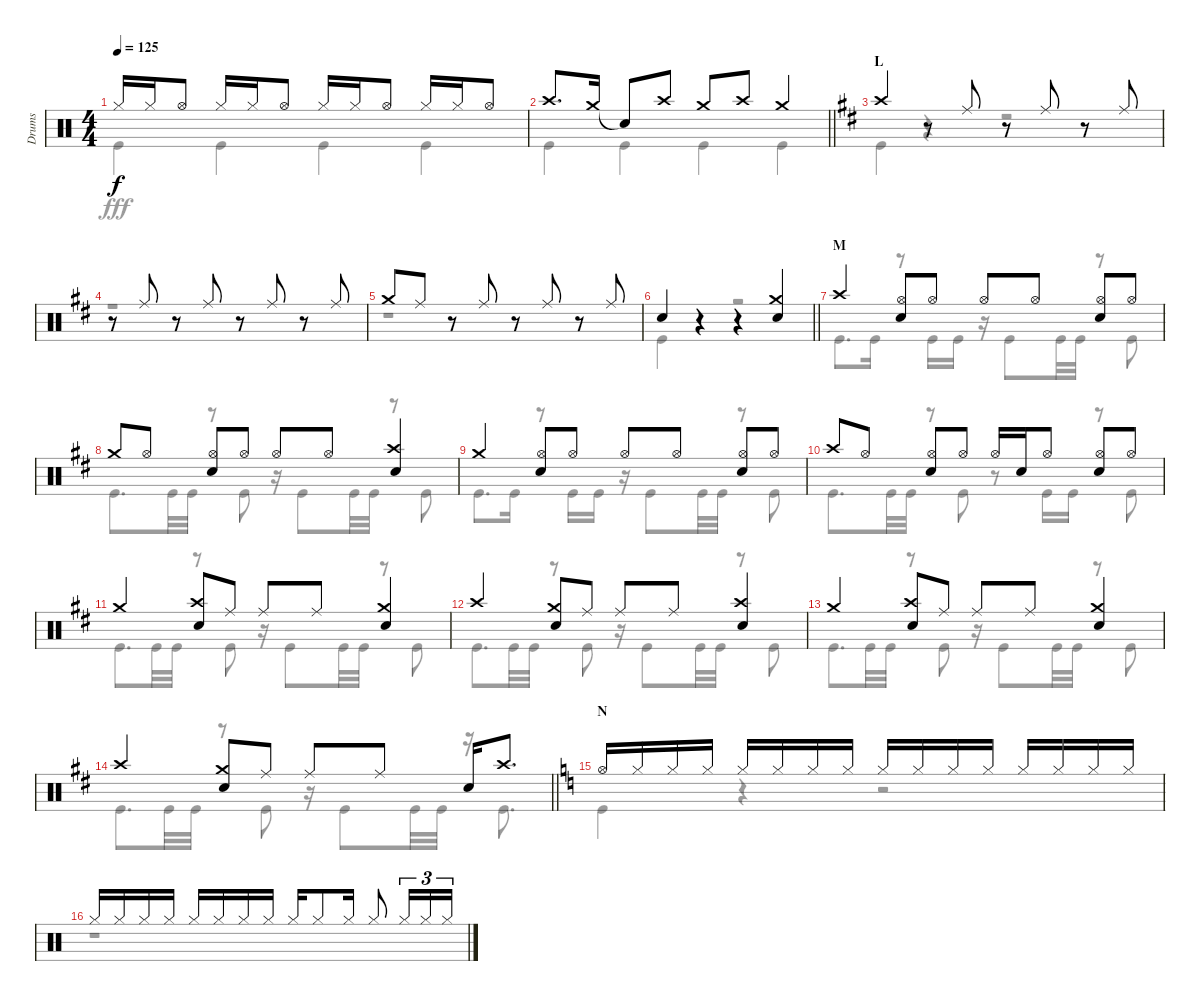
\track ("Drums" "Drums") {instrument percussion}
\staff {score}
\articulation defaults
\voice
\ts (4 4)
\tempo 125
\clef neutral
\ks c "Hi-Hat (closed)".16{dy f} "Hi-Hat (closed)".16 "Hi-Hat (open)".8 "Hi-Hat (closed)".16 "Hi-Hat (closed)".16 "Hi-Hat (open)".8 "Hi-Hat (closed)".16 "Hi-Hat (closed)".16 "Hi-Hat (open)".8 "Hi-Hat (closed)".16 "Hi-Hat (closed)".16 "Hi-Hat (open)".8
|
\barLineRight lightlight "Crash high (hit)".8{d} "Crash medium (hit)".16 "Snare (hit)"{t}.8 "Crash high (hit)".8 "Crash medium (hit)".8 "Crash high (hit)".8 "Crash medium (hit)".4
|
\section ("" "L")
\ks d "Crash high (hit)".4
r.8 "Ride (middle)".8 r.8 "Ride (middle)".8 r.8 "Ride (middle)".8 |
r.8 "Ride (middle)".8 r.8 "Ride (middle)".8 r.8 "Ride (middle)".8 r.8 "Ride (middle)".8 |
"Crash medium (hit)".8 "Ride (middle)".8 r.8 "Ride (middle)".8 r.8 "Ride (middle)".8 r.8 "Ride (middle)".8 |
\barLineRight lightlight "Snare (hit) 2".4
r.4 r.4 ("Crash medium (hit)" "Snare (hit) 2").4 |
\section ("" "M")
"Crash high (hit)".4 ("Hi-Hat (open)" "Snare (hit) 2").8 "Hi-Hat (open)".8 "Hi-Hat (open)".8 "Hi-Hat (open)".8 ("Hi-Hat (open)" "Snare (hit) 2").8 "Hi-Hat (open)".8 |
"Crash medium (hit)".8 "Hi-Hat (open)".8 ("Hi-Hat (open)" "Snare (hit) 2").8 "Hi-Hat (open)".8 "Hi-Hat (open)".8 "Hi-Hat (open)".8 ("Crash high (hit)" "Snare (hit) 2").4 |
"Crash medium (hit)".4 ("Hi-Hat (open)" "Snare (hit) 2").8 "Hi-Hat (open)".8 "Hi-Hat (open)".8 "Hi-Hat (open)".8 ("Hi-Hat (open)" "Snare (hit) 2").8 "Hi-Hat (open)".8 |
"Crash high (hit)".8 "Hi-Hat (open)".8 ("Hi-Hat (open)" "Snare (hit) 2").8 "Hi-Hat (open)".8 "Hi-Hat (open)".16 "Snare (hit) 2".16 "Hi-Hat (open)".8 ("Hi-Hat (open)" "Snare (hit) 2").8 "Hi-Hat (open)".8 |
"Crash medium (hit)".4 ("Crash high (hit)" "Snare (hit) 2").8 "Ride (middle)".8 "Ride (middle)".8 "Ride (middle)".8 ("Crash medium (hit)" "Snare (hit) 2").4 |
"Crash high (hit)".4 ("Crash medium (hit)" "Snare (hit) 2").8 "Ride (middle)".8 "Ride (middle)".8 "Ride (middle)".8 ("Crash high (hit)" "Snare (hit) 2").4 |
"Crash medium (hit)".4 ("Crash high (hit)" "Snare (hit) 2").8 "Ride (middle)".8 "Ride (middle)".8 "Ride (middle)".8 ("Crash medium (hit)" "Snare (hit) 2").4 |
\barLineRight lightlight "Crash high (hit)".4
("Crash medium (hit)" "Snare (hit) 2").8 "Ride (middle)".8 "Ride (middle)".8 "Ride (middle)".8 "Snare (hit) 2".16 "Crash high (hit)".8{d} |
\section ("" "N")
\ks c "Hi-Hat (open)".16 "Hi-Hat (closed)".16 "Hi-Hat (closed)".16 "Hi-Hat (closed)".16 "Hi-Hat (closed)".16 "Hi-Hat (closed)".16 "Hi-Hat (closed)".16 "Hi-Hat (closed)".16 "Hi-Hat (closed)".16 "Hi-Hat (closed)".16 "Hi-Hat (closed)".16 "Hi-Hat (closed)".16 "Hi-Hat (closed)".16 "Hi-Hat (closed)".16 "Hi-Hat (closed)".16 "Hi-Hat (closed)".16
|
"Hi-Hat (closed)".16 "Hi-Hat (closed)".16 "Hi-Hat (closed)".16 "Hi-Hat (closed)".16 "Hi-Hat (closed)".16 "Hi-Hat (closed)".16 "Hi-Hat (closed)".16 "Hi-Hat (closed)".16 "Hi-Hat (closed)".16 "Hi-Hat (closed)".8 "Hi-Hat (closed)".16 "Hi-Hat (closed)".8 "Hi-Hat (closed)".16{tu (3 2)} "Hi-Hat (closed)".16{tu (3 2)} "Hi-Hat (closed)".16{tu (3 2)}
\voice
\clef neutral
\ottava regular
\simile none
\ks c "Kick (hit)".4{dy fff} "Kick (hit)".4 "Kick (hit)".4 "Kick (hit)".4
|
\barLineRight lightlight "Kick (hit)".4 "Kick (hit)".4 "Kick (hit)".4 "Kick (hit)".4
|
\ks d "Kick (hit)".4
r.4 r.2 |
r.1 |
r.1 |
\barLineRight lightlight "Kick (hit)".4
r.4 r.2 |
"Kick (hit)".8{d} "Kick (hit)".16 r.8 "Kick (hit)".16 "Kick (hit)".16 r.16 "Kick (hit)".8 "Kick (hit)".32 "Kick (hit)".32 r.8 "Kick (hit)".8 |
"Kick (hit)".8{d} "Kick (hit)".32 "Kick (hit)".32 r.8 "Kick (hit)".8 r.16 "Kick (hit)".8 "Kick (hit)".32 "Kick (hit)".32 r.8 "Kick (hit)".8 |
"Kick (hit)".8{d} "Kick (hit)".16 r.8 "Kick (hit)".16 "Kick (hit)".16 r.16 "Kick (hit)".8 "Kick (hit)".32 "Kick (hit)".32 r.8 "Kick (hit)".8 |
"Kick (hit)".8{d} "Kick (hit)".32 "Kick (hit)".32 r.8 "Kick (hit)".8 r.8 "Kick (hit)".16 "Kick (hit)".16 r.8 "Kick (hit)".8 |
"Kick (hit)".8{d} "Kick (hit)".32 "Kick (hit)".32 r.8 "Kick (hit)".8 r.16 "Kick (hit)".8 "Kick (hit)".32 "Kick (hit)".32 r.8 "Kick (hit)".8 |
"Kick (hit)".8{d} "Kick (hit)".32 "Kick (hit)".32 r.8 "Kick (hit)".8 r.16 "Kick (hit)".8 "Kick (hit)".32 "Kick (hit)".32 r.8 "Kick (hit)".8 |
"Kick (hit)".8{d} "Kick (hit)".32 "Kick (hit)".32 r.8 "Kick (hit)".8 r.16 "Kick (hit)".8 "Kick (hit)".32 "Kick (hit)".32 r.8 "Kick (hit)".8 |
\barLineRight lightlight "Kick (hit)".8{d} "Kick (hit)".32 "Kick (hit)".32
r.8 "Kick (hit)".8 r.16 "Kick (hit)".8 "Kick (hit)".32 "Kick (hit)".32 r.16 "Kick (hit)".8{d} |
\ks c "Kick (hit)".4
r.4 r.2 |
r.1
